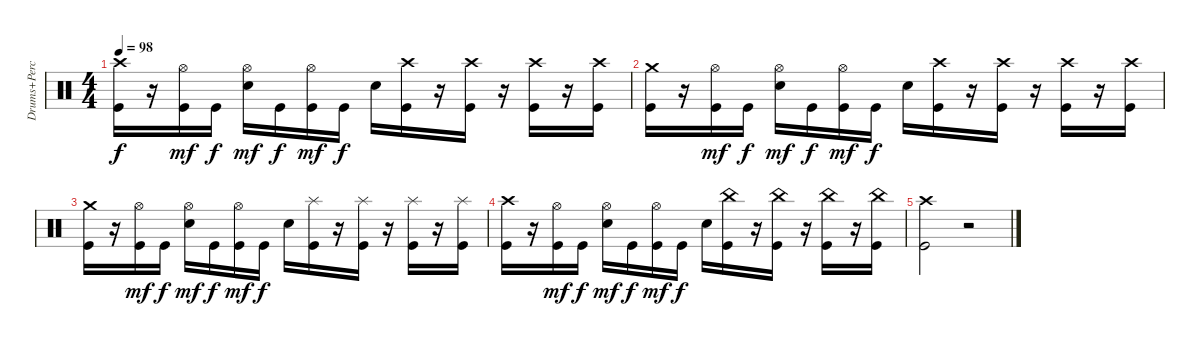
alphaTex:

\track ("Drums+Percussion" "Drums+Perc") {instrument percussion}
\staff {score}
\articulation defaults
\ts (4 4)
\tempo 98
\clef neutral
\ks c
("Kick (hit)" "Crash high (hit)").16{dy f} r.16 ("Kick (hit)" "Hi-Hat (open)").16{dy mf} "Kick (hit)".16{dy f} ("Snare (hit) 2" "Hi-Hat (open)").16{dy mf} "Kick (hit)".16{dy f} ("Kick (hit)" "Hi-Hat (open)").16{dy mf} "Kick (hit)".16{dy f} "Snare (hit) 2".16 ("Kick (hit)" "Crash high (hit)").16 r.16 ("Kick (hit)" "Crash high (hit)").16 r.16 ("Kick (hit)" "Crash high (hit)").16 r.16 ("Kick (hit)" "Crash high (hit)").16 |
("Kick (hit)" "Crash medium (hit)").16 r.16 ("Kick (hit)" "Hi-Hat (open)").16{dy mf} "Kick (hit)".16{dy f} ("Snare (hit) 2" "Hi-Hat (open)").16{dy mf} "Kick (hit)".16{dy f} ("Kick (hit)" "Hi-Hat (open)").16{dy mf} "Kick (hit)".16{dy f} "Snare (hit) 2".16 ("Kick (hit)" "Crash high (hit)").16 r.16 ("Kick (hit)" "Crash high (hit)").16 r.16 ("Kick (hit)" "Crash high (hit)").16 r.16 ("Kick (hit)" "Crash high (hit)").16 |
("Kick (hit)" "Crash medium (hit)").16 r.16 ("Kick (hit)" "Hi-Hat (open)").16{dy mf} "Kick (hit)".16{dy f} ("Snare (hit) 2" "Hi-Hat (open)").16{dy mf} "Kick (hit)".16{dy f} ("Kick (hit)" "Hi-Hat (open)").16{dy mf} "Kick (hit)".16{dy f} "Snare (hit) 2".16 ("Kick (hit)" "Splash (hit)").16 r.16 ("Kick (hit)" "Splash (hit)").16 r.16 ("Kick (hit)" "Splash (hit)").16 r.16 ("Kick (hit)" "Splash (hit)").16 |
("Kick (hit)" "Crash high (hit)").16 r.16 ("Kick (hit)" "Hi-Hat (open)").16{dy mf} "Kick (hit)".16{dy f} ("Snare (hit) 2" "Hi-Hat (open)").16{dy mf} "Kick (hit)".16{dy f} ("Kick (hit)" "Hi-Hat (open)").16{dy mf} "Kick (hit)".16{dy f} "Snare (hit) 2".16 ("Kick (hit)" "China (hit)").16 r.16 ("Kick (hit)" "China (hit)").16 r.16 ("Kick (hit)" "China (hit)").16 r.16 ("Kick (hit)" "China (hit)").16 |
("Kick (hit)" "Crash high (hit)").2 r.2
